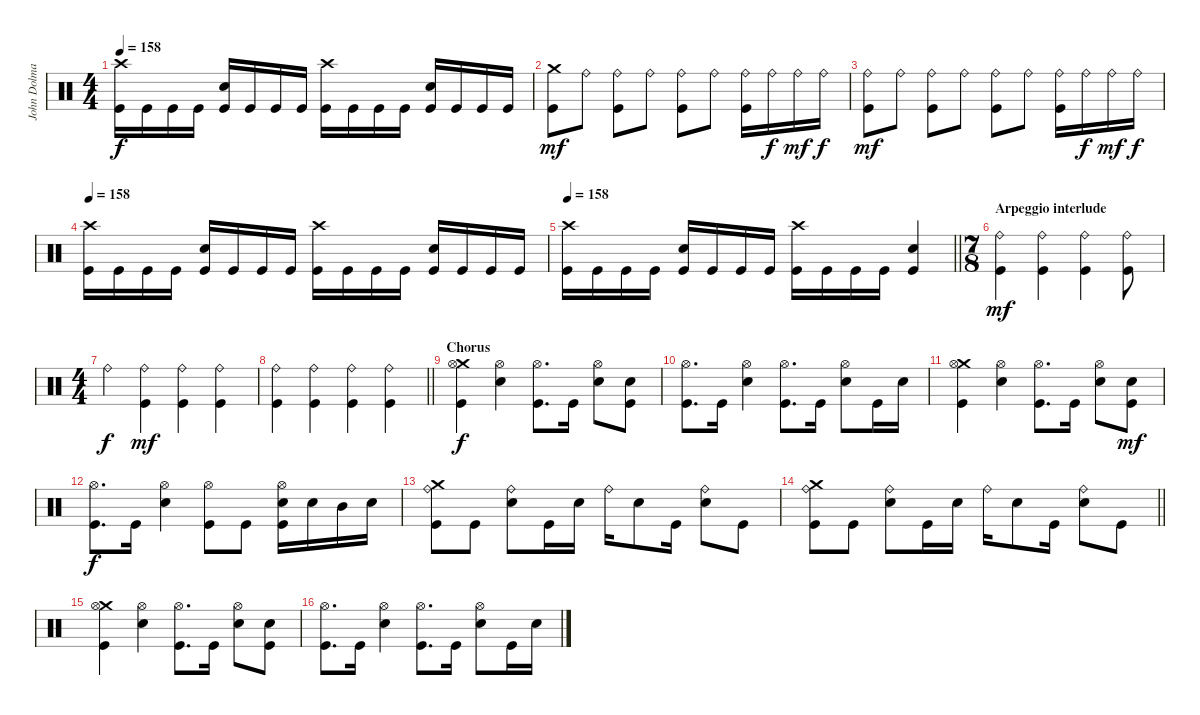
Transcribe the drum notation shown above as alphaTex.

\track ("John Dolmayan (drums)" "John Dolma") {instrument percussion}
\staff {score}
\articulation defaults
\ts (4 4)
\tempo 158
\clef neutral
\ks c
("Crash high (hit)" "Kick (hit)").16{dy f} "Kick (hit)".16 "Kick (hit)".16 "Kick (hit)".16 ("Snare (hit) 2" "Kick (hit)").16 "Kick (hit)".16 "Kick (hit)".16 "Kick (hit)".16 ("Crash high (hit)" "Kick (hit)").16 "Kick (hit)".16 "Kick (hit)".16 "Kick (hit)".16 ("Snare (hit) 2" "Kick (hit)").16 "Kick (hit)".16 "Kick (hit)".16 "Kick (hit)".16 |
("Crash medium (hit)" "Kick (hit)").8{dy mf} "Ride (bell)".8 ("Ride (bell)" "Kick (hit)").8 "Ride (bell)".8 ("Ride (bell)" "Kick (hit)").8 "Ride (bell)".8 ("Ride (bell)" "Kick (hit)").16 "Ride (bell)".16{dy f} "Ride (bell)".16{dy mf} "Ride (bell)".16{dy f} |
("Ride (bell)" "Kick (hit)").8{dy mf} "Ride (bell)".8 ("Ride (bell)" "Kick (hit)").8 "Ride (bell)".8 ("Ride (bell)" "Kick (hit)").8 "Ride (bell)".8 ("Ride (bell)" "Kick (hit)").16 "Ride (bell)".16{dy f} "Ride (bell)".16{dy mf} "Ride (bell)".16{dy f} |
\tempo 158
("Crash high (hit)" "Kick (hit)").16 "Kick (hit)".16 "Kick (hit)".16 "Kick (hit)".16 ("Snare (hit) 2" "Kick (hit)").16 "Kick (hit)".16 "Kick (hit)".16 "Kick (hit)".16 ("Crash high (hit)" "Kick (hit)").16 "Kick (hit)".16 "Kick (hit)".16 "Kick (hit)".16 ("Snare (hit) 2" "Kick (hit)").16 "Kick (hit)".16 "Kick (hit)".16 "Kick (hit)".16 |
\tempo 158
\barLineRight lightlight
("Crash high (hit)" "Kick (hit)").16 "Kick (hit)".16 "Kick (hit)".16 "Kick (hit)".16 ("Snare (hit) 2" "Kick (hit)").16 "Kick (hit)".16 "Kick (hit)".16 "Kick (hit)".16 ("Crash high (hit)" "Kick (hit)").16 "Kick (hit)".16 "Kick (hit)".16 "Kick (hit)".16 ("Snare (hit) 2" "Kick (hit)").4 |
\ts (7 8)
\section ("" "Arpeggio interlude")
("Ride (bell)" "Kick (hit)").4{dy mf} ("Ride (bell)" "Kick (hit)").4 ("Ride (bell)" "Kick (hit)").4 ("Ride (bell)" "Kick (hit)").8 |
\ts (4 4)
"Ride (bell)".4{dy f} ("Ride (bell)" "Kick (hit)").4{dy mf} ("Ride (bell)" "Kick (hit)").4 ("Ride (bell)" "Kick (hit)").4 |
\barLineRight lightlight
("Ride (bell)" "Kick (hit)").4 ("Ride (bell)" "Kick (hit)").4 ("Ride (bell)" "Kick (hit)").4 ("Ride (bell)" "Kick (hit)").4 |
\section ("" "Chorus")
("Crash medium (hit)" "Hi-Hat (open)" "Kick (hit)").4{dy f} ("Hi-Hat (open)" "Snare (hit) 2").4 ("Hi-Hat (open)" "Kick (hit)").8{d} "Kick (hit)".16 ("Hi-Hat (open)" "Snare (hit) 2").8 ("Snare (hit) 2" "Kick (hit)").8 |
("Hi-Hat (open)" "Kick (hit)").8{d} "Kick (hit)".16 ("Hi-Hat (open)" "Snare (hit) 2").4 ("Hi-Hat (open)" "Kick (hit)").8{d} "Kick (hit)".16 ("Hi-Hat (open)" "Snare (hit) 2").8 "Kick (hit)".16 "Snare (hit) 2".16 |
("Crash medium (hit)" "Hi-Hat (open)" "Kick (hit)").4 ("Hi-Hat (open)" "Snare (hit) 2").4 ("Hi-Hat (open)" "Kick (hit)").8{d} "Kick (hit)".16 ("Hi-Hat (open)" "Snare (hit) 2").8 ("Snare (hit) 2" "Kick (hit)").8{dy mf} |
("Hi-Hat (open)" "Kick (hit)").8{d dy f} "Kick (hit)".16 ("Hi-Hat (open)" "Snare (hit) 2").4 ("Hi-Hat (open)" "Kick (hit)").8 "Kick (hit)".8 ("Hi-Hat (open)" "Snare (hit) 2" "Kick (hit)").16 "Snare (hit) 2".16 "Mid Tom (hit)".16 "Snare (hit) 2".16 |
("Crash medium (hit)" "Ride (bell)" "Kick (hit)").8 "Kick (hit)".8 ("Ride (bell)" "Snare (hit) 2").8 "Kick (hit)".16 "Snare (hit) 2".16 "Ride (bell)".16 "Snare (hit) 2".8 "Kick (hit)".16 ("Ride (bell)" "Snare (hit) 2").8 "Kick (hit)".8 |
\barLineRight lightlight
("Crash medium (hit)" "Ride (bell)" "Kick (hit)").8 "Kick (hit)".8 ("Ride (bell)" "Snare (hit) 2").8 "Kick (hit)".16 "Snare (hit) 2".16 "Ride (bell)".16 "Snare (hit) 2".8 "Kick (hit)".16 ("Ride (bell)" "Snare (hit) 2").8 "Kick (hit)".8 |
("Crash medium (hit)" "Hi-Hat (open)" "Kick (hit)").4 ("Hi-Hat (open)" "Snare (hit) 2").4 ("Hi-Hat (open)" "Kick (hit)").8{d} "Kick (hit)".16 ("Hi-Hat (open)" "Snare (hit) 2").8 ("Snare (hit) 2" "Kick (hit)").8 |
("Hi-Hat (open)" "Kick (hit)").8{d} "Kick (hit)".16 ("Hi-Hat (open)" "Snare (hit) 2").4 ("Hi-Hat (open)" "Kick (hit)").8{d} "Kick (hit)".16 ("Hi-Hat (open)" "Snare (hit) 2").8 "Kick (hit)".16 "Snare (hit) 2".16
